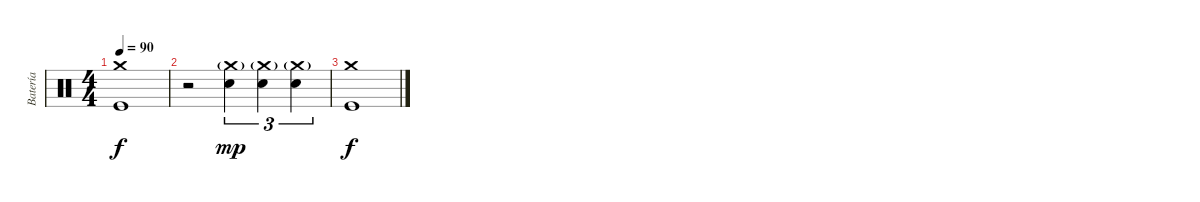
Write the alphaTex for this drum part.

\track ("Batería" "Batería") {instrument percussion}
\staff {score}
\articulation defaults
\ts (4 4)
\tempo 90
\clef neutral
\ks c
("Crash medium (hit)" "Kick (hit)").1{dy f} |
r.2 ("Crash medium (hit)"{g} "Snare (hit) 2").4{tu (3 2) dy mp} ("Crash medium (hit)"{g} "Snare (hit) 2").4{tu (3 2)} ("Crash medium (hit)"{g} "Snare (hit) 2").4{tu (3 2)} |
("Crash medium (hit)" "Kick (hit)").1{dy f}
